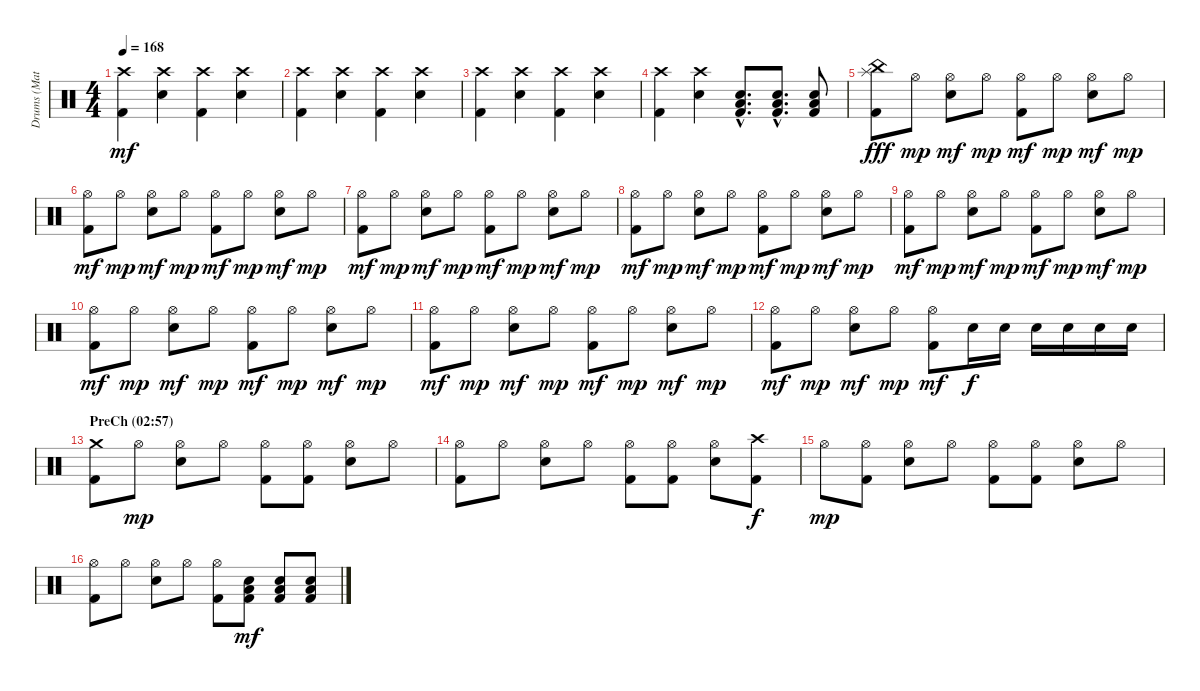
\track ("Drums (Matt Sorum)" "Drums (Mat") {instrument percussion}
\staff {score}
\articulation defaults
\ts (4 4)
\tempo 168
\clef neutral
\ks c
("Crash high (hit)" "Kick (hit) 2").4{dy mf} ("Crash high (hit)" "Electric Snare (hit)").4 ("Crash high (hit)" "Kick (hit) 2").4 ("Crash high (hit)" "Electric Snare (hit)").4 |
("Crash high (hit)" "Kick (hit) 2").4 ("Crash high (hit)" "Electric Snare (hit)").4 ("Crash high (hit)" "Kick (hit) 2").4 ("Crash high (hit)" "Electric Snare (hit)").4 |
("Crash high (hit)" "Kick (hit) 2").4 ("Crash high (hit)" "Electric Snare (hit)").4 ("Crash high (hit)" "Kick (hit) 2").4 ("Crash high (hit)" "Electric Snare (hit)").4 |
("Crash high (hit)" "Kick (hit) 2").4 ("Crash high (hit)" "Electric Snare (hit)").4 ("Electric Snare (hit)"{hac} "Low Tom (hit)"{hac} "Kick (hit) 2"{hac}).8{d} ("Electric Snare (hit)"{hac} "Low Tom (hit)"{hac} "Kick (hit) 2"{hac}).8{d} ("Electric Snare (hit)" "Low Tom (hit)" "Kick (hit) 2").8 |
("China (hit)" "Splash (hit)" "Kick (hit) 2").8{dy fff} "Hi-Hat (open)".8{dy mp} ("Hi-Hat (open)" "Electric Snare (hit)").8{dy mf} "Hi-Hat (open)".8{dy mp} ("Hi-Hat (open)" "Kick (hit) 2").8{dy mf} "Hi-Hat (open)".8{dy mp} ("Hi-Hat (open)" "Electric Snare (hit)").8{dy mf} "Hi-Hat (open)".8{dy mp} |
("Hi-Hat (open)" "Kick (hit) 2").8{dy mf} "Hi-Hat (open)".8{dy mp} ("Hi-Hat (open)" "Electric Snare (hit)").8{dy mf} "Hi-Hat (open)".8{dy mp} ("Hi-Hat (open)" "Kick (hit) 2").8{dy mf} "Hi-Hat (open)".8{dy mp} ("Hi-Hat (open)" "Electric Snare (hit)").8{dy mf} "Hi-Hat (open)".8{dy mp} |
("Hi-Hat (open)" "Kick (hit) 2").8{dy mf} "Hi-Hat (open)".8{dy mp} ("Hi-Hat (open)" "Electric Snare (hit)").8{dy mf} "Hi-Hat (open)".8{dy mp} ("Hi-Hat (open)" "Kick (hit) 2").8{dy mf} "Hi-Hat (open)".8{dy mp} ("Hi-Hat (open)" "Electric Snare (hit)").8{dy mf} "Hi-Hat (open)".8{dy mp} |
("Hi-Hat (open)" "Kick (hit) 2").8{dy mf} "Hi-Hat (open)".8{dy mp} ("Hi-Hat (open)" "Electric Snare (hit)").8{dy mf} "Hi-Hat (open)".8{dy mp} ("Hi-Hat (open)" "Kick (hit) 2").8{dy mf} "Hi-Hat (open)".8{dy mp} ("Hi-Hat (open)" "Electric Snare (hit)").8{dy mf} "Hi-Hat (open)".8{dy mp} |
("Hi-Hat (open)" "Kick (hit) 2").8{dy mf} "Hi-Hat (open)".8{dy mp} ("Hi-Hat (open)" "Electric Snare (hit)").8{dy mf} "Hi-Hat (open)".8{dy mp} ("Hi-Hat (open)" "Kick (hit) 2").8{dy mf} "Hi-Hat (open)".8{dy mp} ("Hi-Hat (open)" "Electric Snare (hit)").8{dy mf} "Hi-Hat (open)".8{dy mp} |
("Hi-Hat (open)" "Kick (hit) 2").8{dy mf} "Hi-Hat (open)".8{dy mp} ("Hi-Hat (open)" "Electric Snare (hit)").8{dy mf} "Hi-Hat (open)".8{dy mp} ("Hi-Hat (open)" "Kick (hit) 2").8{dy mf} "Hi-Hat (open)".8{dy mp} ("Hi-Hat (open)" "Electric Snare (hit)").8{dy mf} "Hi-Hat (open)".8{dy mp} |
("Hi-Hat (open)" "Kick (hit) 2").8{dy mf} "Hi-Hat (open)".8{dy mp} ("Hi-Hat (open)" "Electric Snare (hit)").8{dy mf} "Hi-Hat (open)".8{dy mp} ("Hi-Hat (open)" "Kick (hit) 2").8{dy mf} "Hi-Hat (open)".8{dy mp} ("Hi-Hat (open)" "Electric Snare (hit)").8{dy mf} "Hi-Hat (open)".8{dy mp} |
("Hi-Hat (open)" "Kick (hit) 2").8{dy mf} "Hi-Hat (open)".8{dy mp} ("Hi-Hat (open)" "Electric Snare (hit)").8{dy mf} "Hi-Hat (open)".8{dy mp} ("Hi-Hat (open)" "Kick (hit) 2").8{dy mf} "Electric Snare (hit)".16{dy f} "Electric Snare (hit)".16 "Electric Snare (hit)".16 "Electric Snare (hit)".16 "Electric Snare (hit)".16 "Electric Snare (hit)".16 |
\section ("" "PreCh (02:57)")
("Crash medium (hit)" "Kick (hit) 2").8 "Hi-Hat (open)".8{dy mp} ("Hi-Hat (open)" "Electric Snare (hit)").8 "Hi-Hat (open)".8 ("Hi-Hat (open)" "Kick (hit) 2").8 ("Hi-Hat (open)" "Kick (hit) 2").8 ("Hi-Hat (open)" "Electric Snare (hit)").8 "Hi-Hat (open)".8 |
("Hi-Hat (open)" "Kick (hit) 2").8 "Hi-Hat (open)".8 ("Hi-Hat (open)" "Electric Snare (hit)").8 "Hi-Hat (open)".8 ("Hi-Hat (open)" "Kick (hit) 2").8 ("Hi-Hat (open)" "Kick (hit) 2").8 ("Hi-Hat (open)" "Electric Snare (hit)").8 ("Crash high (hit)" "Kick (hit) 2").8{dy f} |
"Hi-Hat (open)".8{dy mp} ("Hi-Hat (open)" "Kick (hit) 2").8 ("Hi-Hat (open)" "Electric Snare (hit)").8 "Hi-Hat (open)".8 ("Hi-Hat (open)" "Kick (hit) 2").8 ("Hi-Hat (open)" "Kick (hit) 2").8 ("Hi-Hat (open)" "Electric Snare (hit)").8 "Hi-Hat (open)".8 |
("Hi-Hat (open)" "Kick (hit) 2").8 "Hi-Hat (open)".8 ("Hi-Hat (open)" "Electric Snare (hit)").8 "Hi-Hat (open)".8 ("Hi-Hat (open)" "Kick (hit) 2").8 ("Electric Snare (hit)" "Low Tom (hit)" "Kick (hit) 2").8{dy mf} ("Electric Snare (hit)" "Low Tom (hit)" "Kick (hit) 2").8 ("Electric Snare (hit)" "Low Tom (hit)" "Kick (hit) 2").8
